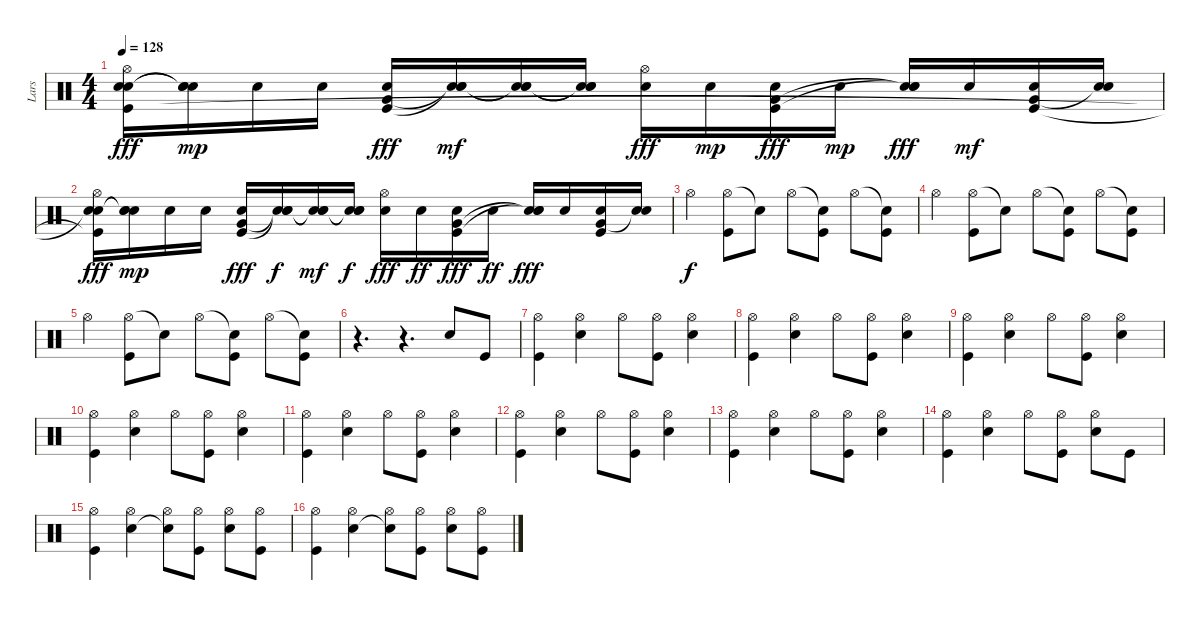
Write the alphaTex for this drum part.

\track ("Lars" "Lars") {instrument percussion}
\staff {score}
\articulation defaults
\ts (4 4)
\tempo 128
\clef neutral
\ks c
("Hi-Hat (open)" "Snare (hit) 2" "Snare (hit)"{t} "Kick (hit)"{t}).16{dy fff} ("Snare (hit) 2" "Snare (hit)"{t} "Snare (hit)"{t}).16{dy mp} "Snare (hit) 2".16 "Snare (hit) 2".16 ("Snare (hit) 2" "Very Low Tom (hit)" "Kick (hit)").16{dy fff} ("Snare (hit) 2" "Snare (hit)"{t} "Snare (hit)"{t}).16{dy mf} ("Snare (hit) 2" "Snare (hit)"{t} "Snare (hit)"{t}).16 ("Snare (hit) 2" "Snare (hit)"{t} "Snare (hit)"{t}).16 ("Hi-Hat (open)" "Snare (hit) 2").16{dy fff} "Snare (hit) 2".16{dy mp} ("Snare (hit) 2" "Very Low Tom (hit)" "Kick (hit)").16{dy fff} "Snare (hit) 2".16{dy mp} ("Snare (hit) 2" "Snare (hit)"{t} "Snare (hit)"{t}).16{dy fff} "Snare (hit) 2".16{dy mf} ("Snare (hit) 2" "Very Low Tom (hit)" "Kick (hit)").16 ("Snare (hit) 2" "Snare (hit)"{t}).16 |
("Hi-Hat (open)" "Snare (hit) 2" "Snare (hit)"{t} "Kick (hit)"{t}).16{dy fff} ("Snare (hit) 2" "Snare (hit)"{t} "Snare (hit)"{t}).16{dy mp} "Snare (hit) 2".16 "Snare (hit) 2".16 ("Snare (hit) 2" "Very Low Tom (hit)" "Kick (hit)").16{dy fff volume 16} ("Snare (hit) 2" "Snare (hit)"{t} "Snare (hit)"{t}).16{dy f} ("Snare (hit) 2" "Snare (hit)"{t} "Snare (hit)"{t}).16{dy mf} ("Snare (hit) 2" "Snare (hit)"{t} "Snare (hit)"{t}).16{dy f} ("Hi-Hat (open)" "Snare (hit) 2").16{dy fff} "Snare (hit) 2".16{dy ff} ("Snare (hit) 2" "Very Low Tom (hit)" "Kick (hit)").16{dy fff} "Snare (hit) 2".16{dy ff} ("Snare (hit) 2" "Snare (hit)"{t} "Snare (hit)"{t}).16{dy fff} "Snare (hit) 2".16 ("Snare (hit) 2" "Very Low Tom (hit)" "Kick (hit)").16 ("Snare (hit) 2" "Snare (hit)"{t}).16 |
"Hi-Hat (open)".4{dy f} ("Hi-Hat (open)" "Kick (hit)").8 "Snare (hit)"{t}.8 "Hi-Hat (open)".8 ("Snare (hit)"{t} "Kick (hit)").8 "Hi-Hat (open)".8 ("Snare (hit)"{t} "Kick (hit)").8 |
"Hi-Hat (open)".4 ("Hi-Hat (open)" "Kick (hit)").8 "Snare (hit)"{t}.8 "Hi-Hat (open)".8 ("Snare (hit)"{t} "Kick (hit)").8 "Hi-Hat (open)".8 ("Snare (hit)"{t} "Kick (hit)").8 |
"Hi-Hat (open)".4 ("Hi-Hat (open)" "Kick (hit)").8 "Snare (hit)"{t}.8 "Hi-Hat (open)".8 ("Snare (hit)"{t} "Kick (hit)").8 "Hi-Hat (open)".8 ("Snare (hit)"{t} "Kick (hit)").8 |
r.4{d} r.4{d} "Snare (hit) 2".8 "Kick (hit)".8 |
("Hi-Hat (open)" "Kick (hit)").4 ("Hi-Hat (open)" "Snare (hit) 2").4 "Hi-Hat (open)".8 ("Hi-Hat (open)" "Kick (hit)").8 ("Hi-Hat (open)" "Snare (hit) 2").4 |
("Hi-Hat (open)" "Kick (hit)").4 ("Hi-Hat (open)" "Snare (hit) 2").4 "Hi-Hat (open)".8 ("Hi-Hat (open)" "Kick (hit)").8 ("Hi-Hat (open)" "Snare (hit) 2").4 |
("Hi-Hat (open)" "Kick (hit)").4 ("Hi-Hat (open)" "Snare (hit) 2").4 "Hi-Hat (open)".8 ("Hi-Hat (open)" "Kick (hit)").8 ("Hi-Hat (open)" "Snare (hit) 2").4 |
("Hi-Hat (open)" "Kick (hit)").4 ("Hi-Hat (open)" "Snare (hit) 2").4 "Hi-Hat (open)".8 ("Hi-Hat (open)" "Kick (hit)").8 ("Hi-Hat (open)" "Snare (hit) 2").4 |
("Hi-Hat (open)" "Kick (hit)").4 ("Hi-Hat (open)" "Snare (hit) 2").4 "Hi-Hat (open)".8 ("Hi-Hat (open)" "Kick (hit)").8 ("Hi-Hat (open)" "Snare (hit) 2").4 |
("Hi-Hat (open)" "Kick (hit)").4 ("Hi-Hat (open)" "Snare (hit) 2").4 "Hi-Hat (open)".8 ("Hi-Hat (open)" "Kick (hit)").8 ("Hi-Hat (open)" "Snare (hit) 2").4 |
("Hi-Hat (open)" "Kick (hit)").4 ("Hi-Hat (open)" "Snare (hit) 2").4 "Hi-Hat (open)".8 ("Hi-Hat (open)" "Kick (hit)").8 ("Hi-Hat (open)" "Snare (hit) 2").4 |
("Hi-Hat (open)" "Kick (hit)").4 ("Hi-Hat (open)" "Snare (hit) 2").4 "Hi-Hat (open)".8 ("Hi-Hat (open)" "Kick (hit)").8 ("Hi-Hat (open)" "Snare (hit) 2").8 "Kick (hit)".8 |
("Hi-Hat (open)" "Kick (hit)").4 ("Hi-Hat (open)" "Snare (hit) 2").4 ("Hi-Hat (open)" "Snare (hit)"{t}).8 ("Hi-Hat (open)" "Kick (hit)").8 ("Hi-Hat (open)" "Snare (hit) 2").8 ("Hi-Hat (open)" "Kick (hit)").8 |
("Hi-Hat (open)" "Kick (hit)").4 ("Hi-Hat (open)" "Snare (hit) 2").4 ("Hi-Hat (open)" "Snare (hit)"{t}).8 ("Hi-Hat (open)" "Kick (hit)").8 ("Hi-Hat (open)" "Snare (hit) 2").8 ("Hi-Hat (open)" "Kick (hit)").8
